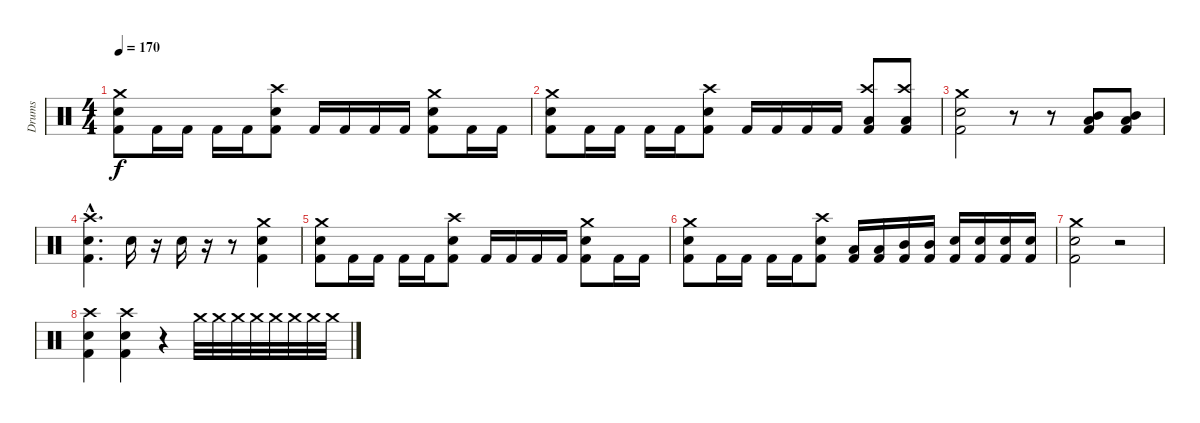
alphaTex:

\track ("Drums" "Drums") {instrument percussion}
\staff {score}
\articulation defaults
\ts (4 4)
\tempo 170
\clef neutral
\ks c
("Kick (hit) 2" "Snare (hit) 2" "Crash medium (hit)").8{dy f} "Kick (hit) 2".16 "Kick (hit) 2".16 "Kick (hit) 2".16 "Kick (hit) 2".16 ("Kick (hit) 2" "Snare (hit) 2" "Crash high (hit)").8 "Kick (hit) 2".16 "Kick (hit) 2".16 "Kick (hit) 2".16 "Kick (hit) 2".16 ("Kick (hit) 2" "Snare (hit) 2" "Crash medium (hit)").8 "Kick (hit) 2".16 "Kick (hit) 2".16 |
("Kick (hit) 2" "Snare (hit) 2" "Crash medium (hit)").8 "Kick (hit) 2".16 "Kick (hit) 2".16 "Kick (hit) 2".16 "Kick (hit) 2".16 ("Kick (hit) 2" "Snare (hit) 2" "Crash high (hit)").8 "Kick (hit) 2".16 "Kick (hit) 2".16 "Kick (hit) 2".16 "Kick (hit) 2".16 ("Kick (hit) 2" "Low Tom (hit)" "Crash high (hit)").8 ("Kick (hit) 2" "Low Tom (hit)" "Crash high (hit)").8 |
("Kick (hit) 2" "Snare (hit) 2" "Crash medium (hit)").2 r.8 r.8 ("Kick (hit) 2" "Low Tom (hit)" "Mid Tom (hit)").8 ("Kick (hit) 2" "Low Tom (hit)" "Mid Tom (hit)").8 |
("Kick (hit) 2"{hac} "Snare (hit) 2"{hac} "Crash high (hit)"{hac}).4{d} "Snare (hit) 2".16 r.16 "Snare (hit) 2".16 r.16 r.8 ("Kick (hit) 2" "Snare (hit) 2" "Crash medium (hit)").4 |
("Kick (hit) 2" "Snare (hit) 2" "Crash medium (hit)").8 "Kick (hit) 2".16 "Kick (hit) 2".16 "Kick (hit) 2".16 "Kick (hit) 2".16 ("Kick (hit) 2" "Snare (hit) 2" "Crash high (hit)").8 "Kick (hit) 2".16 "Kick (hit) 2".16 "Kick (hit) 2".16 "Kick (hit) 2".16 ("Kick (hit) 2" "Snare (hit) 2" "Crash medium (hit)").8 "Kick (hit) 2".16 "Kick (hit) 2".16 |
("Kick (hit) 2" "Snare (hit) 2" "Crash medium (hit)").8 "Kick (hit) 2".16 "Kick (hit) 2".16 "Kick (hit) 2".16 "Kick (hit) 2".16 ("Kick (hit) 2" "Snare (hit) 2" "Crash high (hit)").8 ("Kick (hit) 2" "Low Tom (hit)").16 ("Kick (hit) 2" "Low Tom (hit)").16 ("Kick (hit) 2" "Mid Tom (hit)").16 ("Kick (hit) 2" "Mid Tom (hit)").16 ("Kick (hit) 2" "Snare (hit) 2").16 ("Kick (hit) 2" "Snare (hit) 2").16 ("Kick (hit) 2" "Snare (hit) 2").16 ("Kick (hit) 2" "Snare (hit) 2").16 |
("Kick (hit) 2" "Snare (hit) 2" "Crash medium (hit)").2 r.2 |
("Kick (hit) 2" "Snare (hit) 2" "Crash high (hit)").4 ("Kick (hit) 2" "Snare (hit) 2" "Crash high (hit)").4 r.4 "Crash medium (hit)".32 "Crash medium (hit)".32 "Crash medium (hit)".32 "Crash medium (hit)".32 "Crash medium (hit)".32 "Crash medium (hit)".32 "Crash medium (hit)".32 "Crash medium (hit)".32
